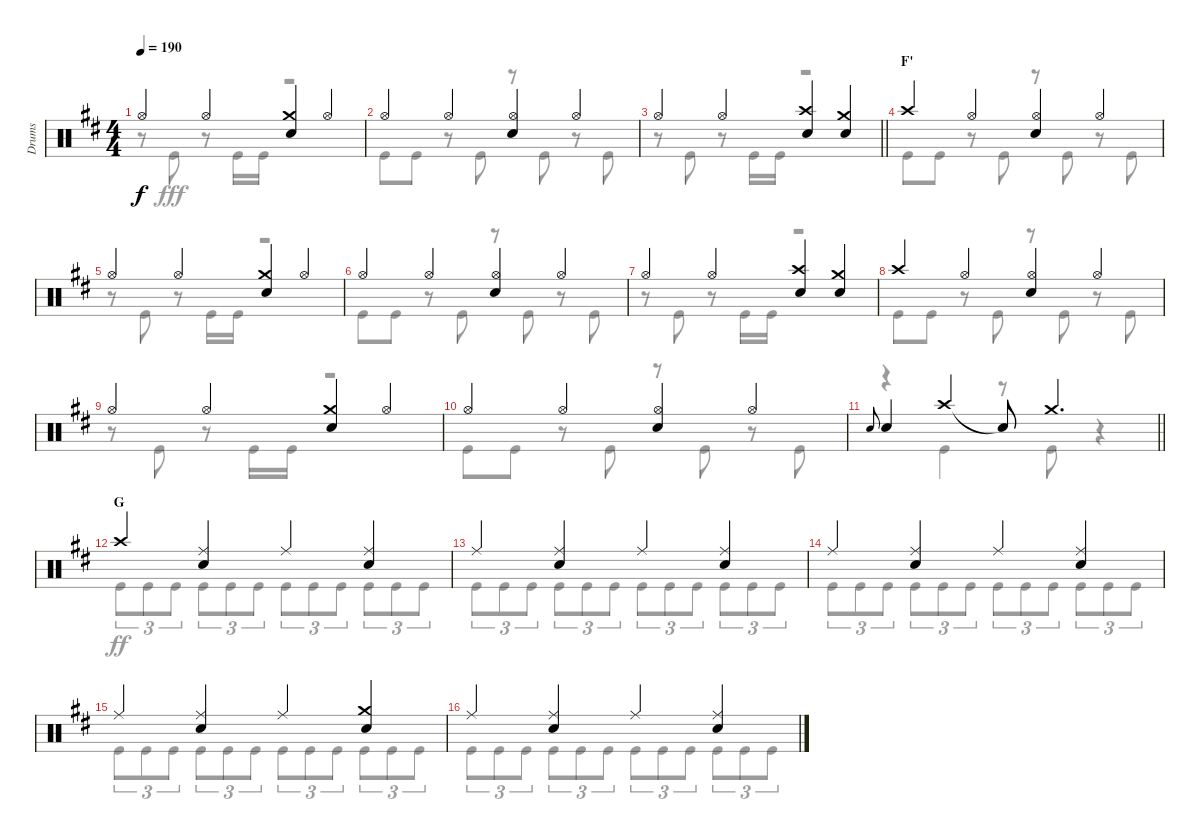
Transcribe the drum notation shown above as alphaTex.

\track ("Drums" "Drums") {instrument percussion}
\staff {score}
\articulation defaults
\voice
\ts (4 4)
\tempo 190
\clef neutral
\ks d "Hi-Hat (open)".4{dy f} "Hi-Hat (open)".4
("Crash medium (hit)" "Snare (hit) 2").4 "Hi-Hat (open)".4 |
"Hi-Hat (open)".4 "Hi-Hat (open)".4 ("Hi-Hat (open)" "Snare (hit) 2").4 "Hi-Hat (open)".4 |
\barLineRight lightlight "Hi-Hat (open)".4 "Hi-Hat (open)".4
("Crash high (hit)" "Snare (hit) 2").4 ("Crash medium (hit)" "Snare (hit) 2").4 |
\section ("" "F'")
"Crash high (hit)".4 "Hi-Hat (open)".4 ("Hi-Hat (open)" "Snare (hit) 2").4 "Hi-Hat (open)".4 |
"Hi-Hat (open)".4 "Hi-Hat (open)".4 ("Crash medium (hit)" "Snare (hit) 2").4 "Hi-Hat (open)".4 |
"Hi-Hat (open)".4 "Hi-Hat (open)".4 ("Hi-Hat (open)" "Snare (hit) 2").4 "Hi-Hat (open)".4 |
"Hi-Hat (open)".4 "Hi-Hat (open)".4 ("Crash high (hit)" "Snare (hit) 2").4 ("Crash medium (hit)" "Snare (hit) 2").4 |
"Crash high (hit)".4 "Hi-Hat (open)".4 ("Hi-Hat (open)" "Snare (hit) 2").4 "Hi-Hat (open)".4 |
"Hi-Hat (open)".4 "Hi-Hat (open)".4 ("Crash medium (hit)" "Snare (hit) 2").4 "Hi-Hat (open)".4 |
"Hi-Hat (open)".4 "Hi-Hat (open)".4 ("Hi-Hat (open)" "Snare (hit) 2").4 "Hi-Hat (open)".4 |
\barLineRight lightlight "Snare (hit) 2".8{gr onbeat} "Snare (hit) 2".4 "Crash high (hit)".4 "Snare (hit)"{t}.8 "Crash medium (hit)".4{d}
|
\section ("" "G")
"Crash high (hit)".4 ("Ride (middle)" "Snare (hit) 2").4 "Ride (middle)".4 ("Ride (middle)" "Snare (hit) 2").4 |
"Ride (middle)".4 ("Ride (middle)" "Snare (hit) 2").4 "Ride (middle)".4 ("Ride (middle)" "Snare (hit) 2").4 |
"Ride (middle)".4 ("Ride (middle)" "Snare (hit) 2").4 "Ride (middle)".4 ("Ride (middle)" "Snare (hit) 2").4 |
"Ride (middle)".4 ("Ride (middle)" "Snare (hit) 2").4 "Ride (middle)".4 ("Crash medium (hit)" "Snare (hit) 2").4 |
"Ride (middle)".4 ("Ride (middle)" "Snare (hit) 2").4 "Ride (middle)".4 ("Ride (middle)" "Snare (hit) 2").4
\voice
\clef neutral
\ottava regular
\simile none
\ks d
r.8{dy fff} "Kick (hit)".8 r.8 "Kick (hit)".16 "Kick (hit)".16 r.2 |
"Kick (hit)".8 "Kick (hit)".8 r.8 "Kick (hit)".8 r.8 "Kick (hit)".8 r.8 "Kick (hit)".8 |
\barLineRight lightlight
r.8 "Kick (hit)".8 r.8 "Kick (hit)".16 "Kick (hit)".16 r.2 |
"Kick (hit)".8 "Kick (hit)".8 r.8 "Kick (hit)".8 r.8 "Kick (hit)".8 r.8 "Kick (hit)".8 |
r.8 "Kick (hit)".8 r.8 "Kick (hit)".16 "Kick (hit)".16 r.2 |
"Kick (hit)".8 "Kick (hit)".8 r.8 "Kick (hit)".8 r.8 "Kick (hit)".8 r.8 "Kick (hit)".8 |
r.8 "Kick (hit)".8 r.8 "Kick (hit)".16 "Kick (hit)".16 r.2 |
"Kick (hit)".8 "Kick (hit)".8 r.8 "Kick (hit)".8 r.8 "Kick (hit)".8 r.8 "Kick (hit)".8 |
r.8 "Kick (hit)".8 r.8 "Kick (hit)".16 "Kick (hit)".16 r.2 |
"Kick (hit)".8 "Kick (hit)".8 r.8 "Kick (hit)".8 r.8 "Kick (hit)".8 r.8 "Kick (hit)".8 |
\barLineRight lightlight
r.4 "Kick (hit)".4 r.8 "Kick (hit)".8 r.4 |
"Kick (hit)".8{tu (3 2) dy ff} "Kick (hit)".8{tu (3 2)} "Kick (hit)".8{tu (3 2)} "Kick (hit)".8{tu (3 2)} "Kick (hit)".8{tu (3 2)} "Kick (hit)".8{tu (3 2)} "Kick (hit)".8{tu (3 2)} "Kick (hit)".8{tu (3 2)} "Kick (hit)".8{tu (3 2)} "Kick (hit)".8{tu (3 2)} "Kick (hit)".8{tu (3 2)} "Kick (hit)".8{tu (3 2)} |
"Kick (hit)".8{tu (3 2)} "Kick (hit)".8{tu (3 2)} "Kick (hit)".8{tu (3 2)} "Kick (hit)".8{tu (3 2)} "Kick (hit)".8{tu (3 2)} "Kick (hit)".8{tu (3 2)} "Kick (hit)".8{tu (3 2)} "Kick (hit)".8{tu (3 2)} "Kick (hit)".8{tu (3 2)} "Kick (hit)".8{tu (3 2)} "Kick (hit)".8{tu (3 2)} "Kick (hit)".8{tu (3 2)} |
"Kick (hit)".8{tu (3 2)} "Kick (hit)".8{tu (3 2)} "Kick (hit)".8{tu (3 2)} "Kick (hit)".8{tu (3 2)} "Kick (hit)".8{tu (3 2)} "Kick (hit)".8{tu (3 2)} "Kick (hit)".8{tu (3 2)} "Kick (hit)".8{tu (3 2)} "Kick (hit)".8{tu (3 2)} "Kick (hit)".8{tu (3 2)} "Kick (hit)".8{tu (3 2)} "Kick (hit)".8{tu (3 2)} |
"Kick (hit)".8{tu (3 2)} "Kick (hit)".8{tu (3 2)} "Kick (hit)".8{tu (3 2)} "Kick (hit)".8{tu (3 2)} "Kick (hit)".8{tu (3 2)} "Kick (hit)".8{tu (3 2)} "Kick (hit)".8{tu (3 2)} "Kick (hit)".8{tu (3 2)} "Kick (hit)".8{tu (3 2)} "Kick (hit)".8{tu (3 2)} "Kick (hit)".8{tu (3 2)} "Kick (hit)".8{tu (3 2)} |
"Kick (hit)".8{tu (3 2)} "Kick (hit)".8{tu (3 2)} "Kick (hit)".8{tu (3 2)} "Kick (hit)".8{tu (3 2)} "Kick (hit)".8{tu (3 2)} "Kick (hit)".8{tu (3 2)} "Kick (hit)".8{tu (3 2)} "Kick (hit)".8{tu (3 2)} "Kick (hit)".8{tu (3 2)} "Kick (hit)".8{tu (3 2)} "Kick (hit)".8{tu (3 2)} "Kick (hit)".8{tu (3 2)}
